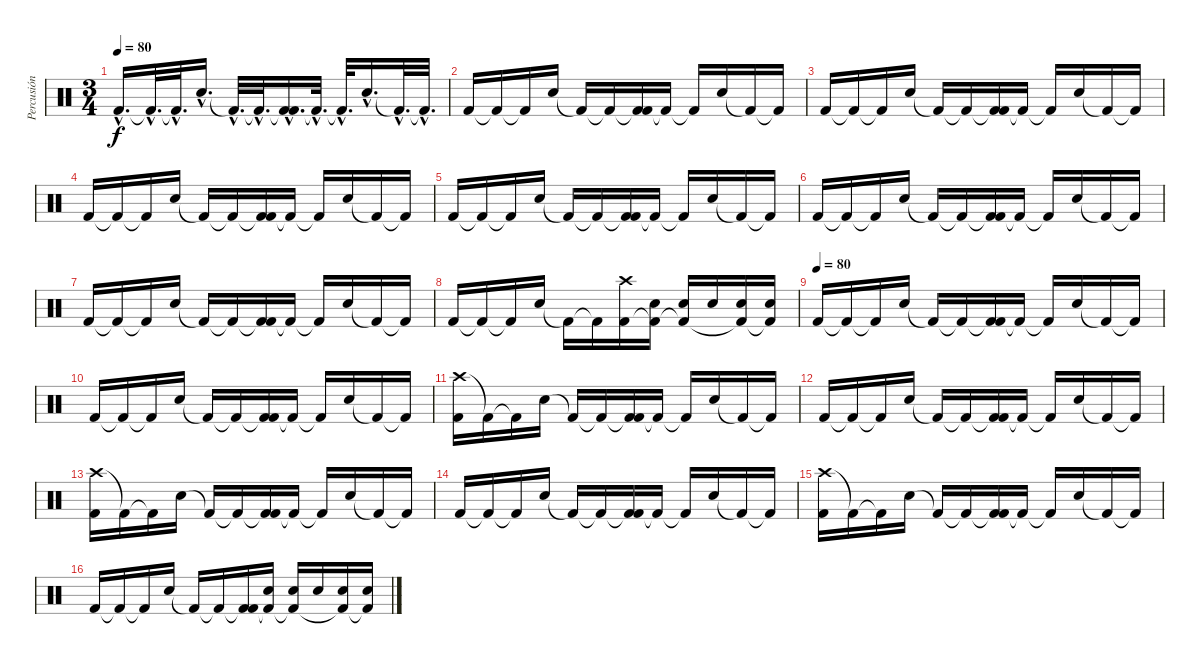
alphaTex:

\track ("Percusión" "Percusión") {instrument percussion}
\staff {score}
\articulation defaults
\ts (3 4)
\tempo 80
\clef neutral
\ks c "Kick (hit) 2"{hac}.16{d dy f} "Kick (hit) 2"{hac t}.32{d} "Kick (hit) 2"{hac t}.32{d} "Electric Snare (hit)"{hac}.16{d} "Kick (hit) 2"{hac t}.32{d} "Kick (hit) 2"{hac t}.32{d}
("Kick (hit) 2"{hac t} "Kick (hit) 2"{hac}).16{d} "Kick (hit) 2"{hac t}.32{d} "Kick (hit) 2"{hac t}.32{d} "Electric Snare (hit)"{hac}.16{d} "Kick (hit) 2"{hac t}.32{d} "Kick (hit) 2"{hac t}.32{d} |
"Kick (hit) 2".16 "Kick (hit) 2"{t}.16 "Kick (hit) 2"{t}.16 "Electric Snare (hit)".16 "Kick (hit) 2"{t}.16 "Kick (hit) 2"{t}.16 ("Kick (hit) 2"{t} "Kick (hit) 2").16 "Kick (hit) 2"{t}.16 "Kick (hit) 2"{t}.16 "Electric Snare (hit)".16 "Kick (hit) 2"{t}.16 "Kick (hit) 2"{t}.16 |
"Kick (hit) 2".16 "Kick (hit) 2"{t}.16 "Kick (hit) 2"{t}.16 "Electric Snare (hit)".16 "Kick (hit) 2"{t}.16 "Kick (hit) 2"{t}.16 ("Kick (hit) 2"{t} "Kick (hit) 2").16 "Kick (hit) 2"{t}.16 "Kick (hit) 2"{t}.16 "Electric Snare (hit)".16 "Kick (hit) 2"{t}.16 "Kick (hit) 2"{t}.16 |
"Kick (hit) 2".16 "Kick (hit) 2"{t}.16 "Kick (hit) 2"{t}.16 "Electric Snare (hit)".16 "Kick (hit) 2"{t}.16 "Kick (hit) 2"{t}.16 ("Kick (hit) 2"{t} "Kick (hit) 2").16 "Kick (hit) 2"{t}.16 "Kick (hit) 2"{t}.16 "Electric Snare (hit)".16 "Kick (hit) 2"{t}.16 "Kick (hit) 2"{t}.16 |
"Kick (hit) 2".16 "Kick (hit) 2"{t}.16 "Kick (hit) 2"{t}.16 "Electric Snare (hit)".16 "Kick (hit) 2"{t}.16 "Kick (hit) 2"{t}.16 ("Kick (hit) 2"{t} "Kick (hit) 2").16 "Kick (hit) 2"{t}.16 "Kick (hit) 2"{t}.16 "Electric Snare (hit)".16 "Kick (hit) 2"{t}.16 "Kick (hit) 2"{t}.16 |
"Kick (hit) 2".16 "Kick (hit) 2"{t}.16 "Kick (hit) 2"{t}.16 "Electric Snare (hit)".16 "Kick (hit) 2"{t}.16 "Kick (hit) 2"{t}.16 ("Kick (hit) 2"{t} "Kick (hit) 2").16 "Kick (hit) 2"{t}.16 "Kick (hit) 2"{t}.16 "Electric Snare (hit)".16 "Kick (hit) 2"{t}.16 "Kick (hit) 2"{t}.16 |
"Kick (hit) 2".16 "Kick (hit) 2"{t}.16 "Kick (hit) 2"{t}.16 "Electric Snare (hit)".16 "Kick (hit) 2"{t}.16 "Kick (hit) 2"{t}.16 ("Kick (hit) 2"{t} "Kick (hit) 2").16 "Kick (hit) 2"{t}.16 "Kick (hit) 2"{t}.16 "Electric Snare (hit)".16 "Kick (hit) 2"{t}.16 "Kick (hit) 2"{t}.16 |
"Kick (hit) 2".16 "Kick (hit) 2"{t}.16 "Kick (hit) 2"{t}.16 "Electric Snare (hit)".16 "Kick (hit) 2"{t}.16 "Kick (hit) 2"{t}.16 ("Crash high (hit)" "Kick (hit) 2").16 ("Electric Snare (hit)" "Kick (hit) 2"{t}).16 ("Electric Snare (hit)" "Kick (hit) 2"{t}).16 "Electric Snare (hit)".16 ("Electric Snare (hit)" "Kick (hit) 2"{t}).16 ("Electric Snare (hit)" "Kick (hit) 2"{t}).16 |
\tempo (80)
"Kick (hit) 2".16 "Kick (hit) 2"{t}.16 "Kick (hit) 2"{t}.16 "Electric Snare (hit)".16 "Kick (hit) 2"{t}.16 "Kick (hit) 2"{t}.16 ("Kick (hit) 2"{t} "Kick (hit) 2").16 "Kick (hit) 2"{t}.16 "Kick (hit) 2"{t}.16 "Electric Snare (hit)".16 "Kick (hit) 2"{t}.16 "Kick (hit) 2"{t}.16 |
"Kick (hit) 2".16 "Kick (hit) 2"{t}.16 "Kick (hit) 2"{t}.16 "Electric Snare (hit)".16 "Kick (hit) 2"{t}.16 "Kick (hit) 2"{t}.16 ("Kick (hit) 2"{t} "Kick (hit) 2").16 "Kick (hit) 2"{t}.16 "Kick (hit) 2"{t}.16 "Electric Snare (hit)".16 "Kick (hit) 2"{t}.16 "Kick (hit) 2"{t}.16 |
("Crash high (hit)" "Kick (hit) 2").16 "Kick (hit) 2"{t}.16 "Kick (hit) 2"{t}.16 "Electric Snare (hit)".16 "Kick (hit) 2"{t}.16 "Kick (hit) 2"{t}.16 ("Kick (hit) 2"{t} "Kick (hit) 2").16 "Kick (hit) 2"{t}.16 "Kick (hit) 2"{t}.16 "Electric Snare (hit)".16 "Kick (hit) 2"{t}.16 "Kick (hit) 2"{t}.16 |
"Kick (hit) 2".16 "Kick (hit) 2"{t}.16 "Kick (hit) 2"{t}.16 "Electric Snare (hit)".16 "Kick (hit) 2"{t}.16 "Kick (hit) 2"{t}.16 ("Kick (hit) 2"{t} "Kick (hit) 2").16 "Kick (hit) 2"{t}.16 "Kick (hit) 2"{t}.16 "Electric Snare (hit)".16 "Kick (hit) 2"{t}.16 "Kick (hit) 2"{t}.16 |
("Crash high (hit)" "Kick (hit) 2").16 "Kick (hit) 2"{t}.16 "Kick (hit) 2"{t}.16 "Electric Snare (hit)".16 "Kick (hit) 2"{t}.16 "Kick (hit) 2"{t}.16 ("Kick (hit) 2"{t} "Kick (hit) 2").16 "Kick (hit) 2"{t}.16 "Kick (hit) 2"{t}.16 "Electric Snare (hit)".16 "Kick (hit) 2"{t}.16 "Kick (hit) 2"{t}.16 |
"Kick (hit) 2".16 "Kick (hit) 2"{t}.16 "Kick (hit) 2"{t}.16 "Electric Snare (hit)".16 "Kick (hit) 2"{t}.16 "Kick (hit) 2"{t}.16 ("Kick (hit) 2"{t} "Kick (hit) 2").16 "Kick (hit) 2"{t}.16 "Kick (hit) 2"{t}.16 "Electric Snare (hit)".16 "Kick (hit) 2"{t}.16 "Kick (hit) 2"{t}.16 |
("Crash high (hit)" "Kick (hit) 2").16 "Kick (hit) 2"{t}.16 "Kick (hit) 2"{t}.16 "Electric Snare (hit)".16 "Kick (hit) 2"{t}.16 "Kick (hit) 2"{t}.16 ("Kick (hit) 2"{t} "Kick (hit) 2").16 "Kick (hit) 2"{t}.16 "Kick (hit) 2"{t}.16 "Electric Snare (hit)".16 "Kick (hit) 2"{t}.16 "Kick (hit) 2"{t}.16 |
"Kick (hit) 2".16 "Kick (hit) 2"{t}.16 "Kick (hit) 2"{t}.16 "Electric Snare (hit)".16 "Kick (hit) 2"{t}.16 "Kick (hit) 2"{t}.16 ("Kick (hit) 2"{t} "Kick (hit) 2").16 ("Electric Snare (hit)" "Kick (hit) 2"{t}).16 ("Electric Snare (hit)" "Kick (hit) 2"{t}).16 "Electric Snare (hit)".16 ("Electric Snare (hit)" "Kick (hit) 2"{t}).16 ("Electric Snare (hit)" "Kick (hit) 2"{t}).16
